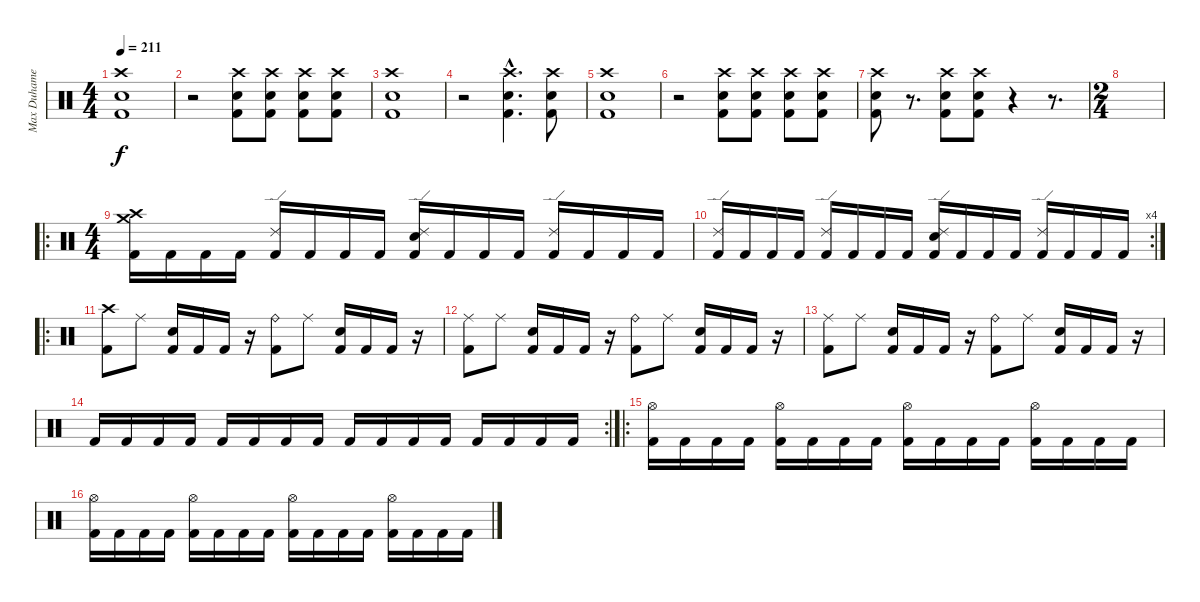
\track ("Max Duhamel" "Max Duhame") {instrument percussion}
\staff {score}
\articulation defaults
\ts (4 4)
\tempo 211
\clef neutral
\ks c
("Crash high (hit)" "Electric Snare (hit)" "Kick (hit) 2").1{dy f} |
r.2 ("Crash high (hit)" "Electric Snare (hit)" "Kick (hit) 2").8 ("Crash high (hit)" "Electric Snare (hit)" "Kick (hit) 2").8 ("Crash high (hit)" "Electric Snare (hit)" "Kick (hit) 2").8 ("Crash high (hit)" "Electric Snare (hit)" "Kick (hit) 2").8 |
("Crash high (hit)" "Electric Snare (hit)" "Kick (hit) 2").1 |
r.2 ("Crash high (hit)"{hac} "Electric Snare (hit)"{hac} "Kick (hit) 2"{hac}).4{d} ("Crash high (hit)" "Electric Snare (hit)" "Kick (hit) 2").8 |
("Crash high (hit)" "Electric Snare (hit)" "Kick (hit) 2").1 |
r.2 ("Crash high (hit)" "Electric Snare (hit)" "Kick (hit) 2").8 ("Crash high (hit)" "Electric Snare (hit)" "Kick (hit) 2").8 ("Crash high (hit)" "Electric Snare (hit)" "Kick (hit) 2").8 ("Crash high (hit)" "Electric Snare (hit)" "Kick (hit) 2").8 |
("Crash high (hit)" "Electric Snare (hit)" "Kick (hit) 2").8 r.8{d} ("Crash high (hit)" "Electric Snare (hit)" "Kick (hit) 2").8 ("Crash high (hit)" "Electric Snare (hit)" "Kick (hit) 2").8 r.4 r.8{d} |
\ts (2 4)
|
\ro
\ts (4 4)
("Crash high (hit)" "Crash medium (hit)" "Kick (hit) 2").16 "Kick (hit) 2".16 "Kick (hit) 2".16 "Kick (hit) 2".16 ("Ride (edge) 2" "Kick (hit) 2").16 "Kick (hit) 2".16 "Kick (hit) 2".16 "Kick (hit) 2".16 ("Ride (edge) 2" "Electric Snare (hit)" "Kick (hit) 2").16 "Kick (hit) 2".16 "Kick (hit) 2".16 "Kick (hit) 2".16 ("Ride (edge) 2" "Kick (hit) 2").16 "Kick (hit) 2".16 "Kick (hit) 2".16 "Kick (hit) 2".16 |
\rc 4
("Ride (edge) 2" "Kick (hit) 2").16 "Kick (hit) 2".16 "Kick (hit) 2".16 "Kick (hit) 2".16 ("Ride (edge) 2" "Kick (hit) 2").16 "Kick (hit) 2".16 "Kick (hit) 2".16 "Kick (hit) 2".16 ("Ride (edge) 2" "Electric Snare (hit)" "Kick (hit) 2").16 "Kick (hit) 2".16 "Kick (hit) 2".16 "Kick (hit) 2".16 ("Ride (edge) 2" "Kick (hit) 2").16 "Kick (hit) 2".16 "Kick (hit) 2".16 "Kick (hit) 2".16 |
\ro
("Crash high (hit)" "Kick (hit) 2").8 "Ride (middle)".8 ("Electric Snare (hit)" "Kick (hit) 2").16 "Kick (hit) 2".16 "Kick (hit) 2".16 r.16 ("Ride (bell)" "Kick (hit) 2").8 "Ride (middle)".8 ("Electric Snare (hit)" "Kick (hit) 2").16 "Kick (hit) 2".16 "Kick (hit) 2".16 r.16 |
("Ride (middle)" "Kick (hit) 2").8 "Ride (middle)".8 ("Electric Snare (hit)" "Kick (hit) 2").16 "Kick (hit) 2".16 "Kick (hit) 2".16 r.16 ("Ride (bell)" "Kick (hit) 2").8 "Ride (middle)".8 ("Electric Snare (hit)" "Kick (hit) 2").16 "Kick (hit) 2".16 "Kick (hit) 2".16 r.16 |
("Ride (middle)" "Kick (hit) 2").8 "Ride (middle)".8 ("Electric Snare (hit)" "Kick (hit) 2").16 "Kick (hit) 2".16 "Kick (hit) 2".16 r.16 ("Ride (bell)" "Kick (hit) 2").8 "Ride (middle)".8 ("Electric Snare (hit)" "Kick (hit) 2").16 "Kick (hit) 2".16 "Kick (hit) 2".16 r.16 |
\rc 2 "Kick (hit) 2".16 "Kick (hit) 2".16 "Kick (hit) 2".16 "Kick (hit) 2".16 "Kick (hit) 2".16 "Kick (hit) 2".16 "Kick (hit) 2".16 "Kick (hit) 2".16 "Kick (hit) 2".16 "Kick (hit) 2".16 "Kick (hit) 2".16 "Kick (hit) 2".16 "Kick (hit) 2".16 "Kick (hit) 2".16 "Kick (hit) 2".16 "Kick (hit) 2".16
|
\ro
("Hi-Hat (open)" "Kick (hit) 2").16 "Kick (hit) 2".16 "Kick (hit) 2".16 "Kick (hit) 2".16 ("Hi-Hat (open)" "Kick (hit) 2").16 "Kick (hit) 2".16 "Kick (hit) 2".16 "Kick (hit) 2".16 ("Hi-Hat (open)" "Kick (hit) 2").16 "Kick (hit) 2".16 "Kick (hit) 2".16 "Kick (hit) 2".16 ("Hi-Hat (open)" "Kick (hit) 2").16 "Kick (hit) 2".16 "Kick (hit) 2".16 "Kick (hit) 2".16 |
("Hi-Hat (open)" "Kick (hit) 2").16 "Kick (hit) 2".16 "Kick (hit) 2".16 "Kick (hit) 2".16 ("Hi-Hat (open)" "Kick (hit) 2").16 "Kick (hit) 2".16 "Kick (hit) 2".16 "Kick (hit) 2".16 ("Hi-Hat (open)" "Kick (hit) 2").16 "Kick (hit) 2".16 "Kick (hit) 2".16 "Kick (hit) 2".16 ("Hi-Hat (open)" "Kick (hit) 2").16 "Kick (hit) 2".16 "Kick (hit) 2".16 "Kick (hit) 2".16
